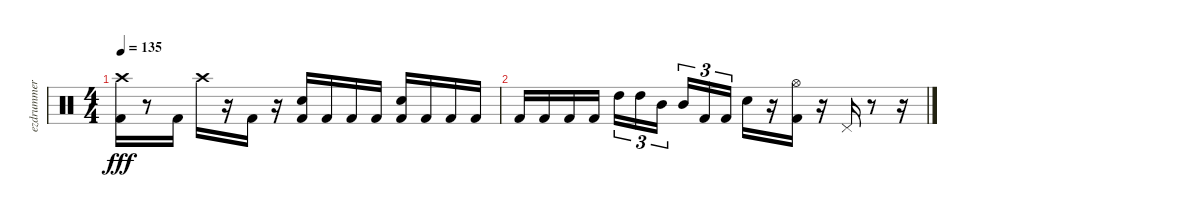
\track ("ezdrummer" "ezdrummer") {instrument percussion}
\staff {score}
\articulation defaults
\ts (4 4)
\tempo 135
\clef neutral
\ks c
("Kick (hit) 2" "Crash high (hit)").16{dy fff} r.8 "Kick (hit) 2".16 "Crash high (hit)".16 r.16 "Kick (hit) 2".16 r.16 ("Kick (hit) 2" "Snare (hit) 2").16 "Kick (hit) 2".16 "Kick (hit) 2".16 "Kick (hit) 2".16 ("Kick (hit) 2" "Snare (hit) 2").16 "Kick (hit) 2".16 "Kick (hit) 2".16 "Kick (hit) 2".16 |
"Kick (hit) 2".16 "Kick (hit) 2".16 "Kick (hit) 2".16 "Kick (hit) 2".16 "High Tom (hit)".16{tu (3 2)} "High Tom (hit)".16{tu (3 2)} "Mid Tom (hit)".16{tu (3 2)} "Mid Tom (hit)".16{tu (3 2)} "Kick (hit) 2".16{tu (3 2)} "Kick (hit) 2".16{tu (3 2)} "Snare (hit) 2".16 r.16 ("Kick (hit) 2" "Hi-Hat (open)").16 r.16 "Pedal Hi-Hat (hit)".16 r.8 r.16
